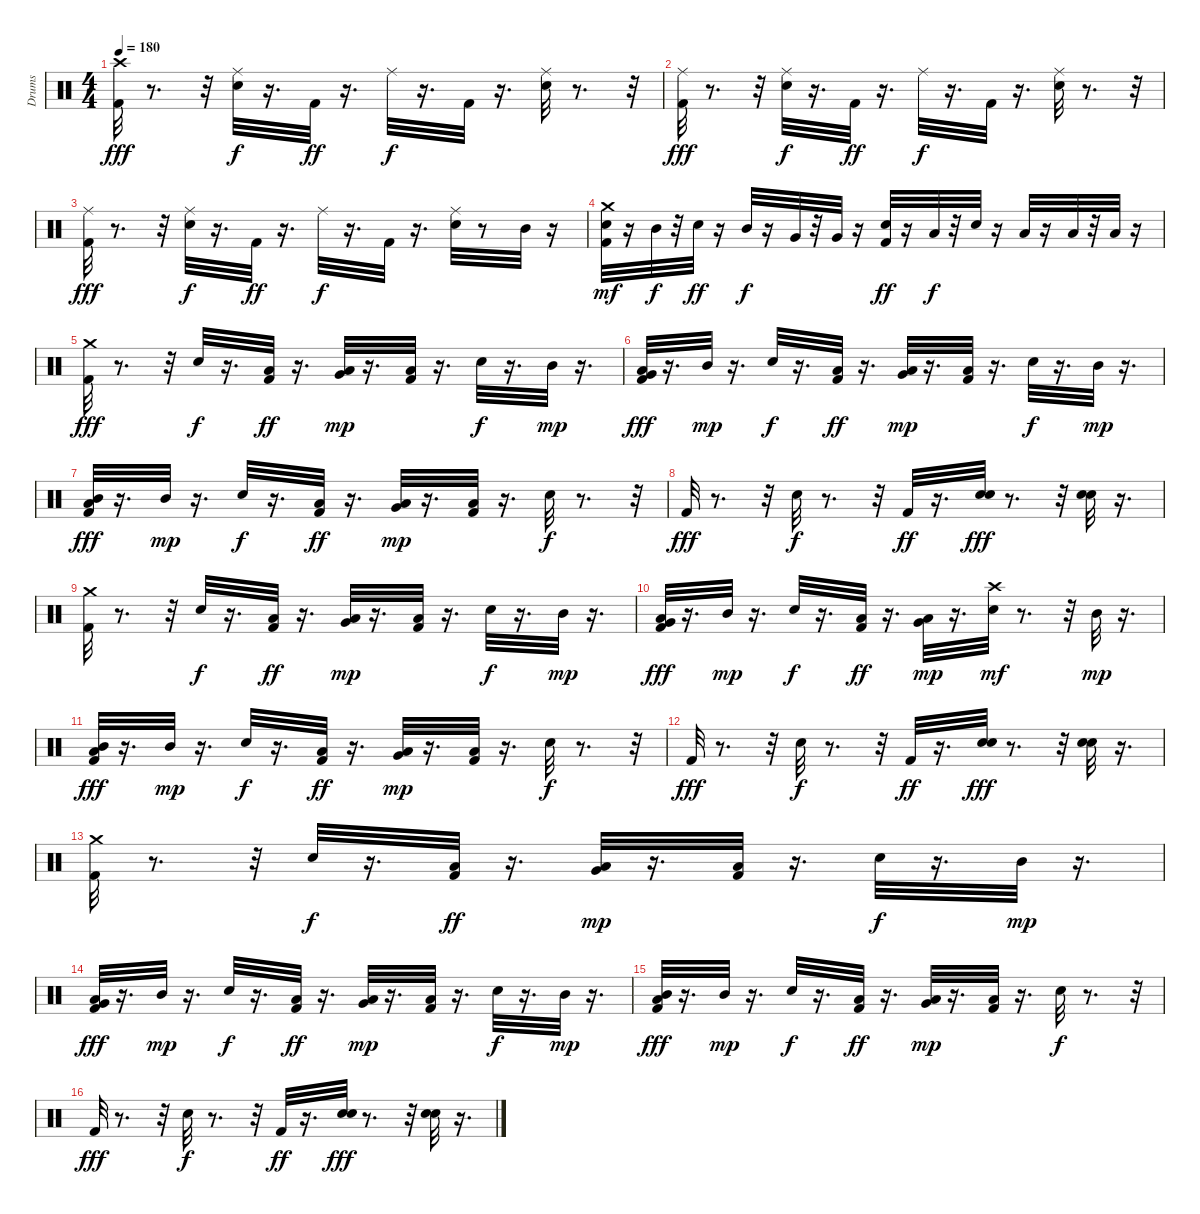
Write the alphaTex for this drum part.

\track ("Drums" "Drums") {instrument percussion}
\staff {score}
\articulation defaults
\ts (4 4)
\tempo 180
\clef neutral
\ks c
("Kick (hit) 2" "Crash high (hit)").32{dy fff} r.8{d} r.32 ("Ride (middle)" "Snare (hit) 2").32{dy f} r.16{d} "Kick (hit) 2".32{dy ff} r.16{d} "Ride (middle)".32{dy f} r.16{d} "Kick (hit) 2".32 r.16{d} ("Ride (middle)" "Snare (hit) 2").32 r.8{d} r.32 |
("Ride (middle)" "Kick (hit) 2").32{dy fff} r.8{d} r.32 ("Ride (middle)" "Snare (hit) 2").32{dy f} r.16{d} "Kick (hit) 2".32{dy ff} r.16{d} "Ride (middle)".32{dy f} r.16{d} "Kick (hit) 2".32 r.16{d} ("Ride (middle)" "Snare (hit) 2").32 r.8{d} r.32 |
("Ride (middle)" "Kick (hit) 2").32{dy fff} r.8{d} r.32 ("Ride (middle)" "Snare (hit) 2").32{dy f} r.16{d} "Kick (hit) 2".32{dy ff} r.16{d} "Ride (middle)".32{dy f} r.16{d} "Kick (hit) 2".32 r.16{d} ("Ride (middle)" "Snare (hit) 2").32 r.8 "Mid Tom (hit)".32 r.16 |
("Kick (hit) 2" "Snare (hit) 2" "Crash medium (hit)").32{dy mf} r.16 "Mid Tom (hit)".32{dy f} r.32 "Snare (hit) 2".32{dy ff} r.16 "Mid Tom (hit)".32{dy f} r.16 "Very Low Tom (hit)".32 r.32 "Very Low Tom (hit)".32 r.16 ("Kick (hit) 2" "Snare (hit) 2").32{dy ff} r.16 "Low Tom (hit)".32{dy f} r.32 "Snare (hit) 2".32 r.16 "Low Tom (hit)".32 r.16 "Low Floor Tom (hit)".32 r.32 "Low Floor Tom (hit)".32 r.16 |
("Kick (hit) 2" "Crash medium (hit)").32{dy fff} r.8{d} r.32 "Snare (hit) 2".32{dy f} r.16{d} ("Low Tom (hit)" "Kick (hit) 2").32{dy ff} r.16{d} ("Very Low Tom (hit)" "Low Floor Tom (hit)").32{dy mp} r.16{d} ("Low Tom (hit)" "Kick (hit) 2").32 r.16{d} "Snare (hit) 2".32{dy f} r.16{d} "Mid Tom (hit)".32{dy mp} r.16{d} |
("Low Tom (hit)" "Very Low Tom (hit)" "Kick (hit) 2").32{dy fff} r.16{d} "Mid Tom (hit)".32{dy mp} r.16{d} "Snare (hit) 2".32{dy f} r.16{d} ("Low Tom (hit)" "Kick (hit) 2").32{dy ff} r.16{d} ("Very Low Tom (hit)" "Low Floor Tom (hit)").32{dy mp} r.16{d} ("Low Tom (hit)" "Kick (hit) 2").32 r.16{d} "Snare (hit) 2".32{dy f} r.16{d} "Mid Tom (hit)".32{dy mp} r.16{d} |
("Mid Tom (hit)" "Low Tom (hit)" "Kick (hit) 2").32{dy fff} r.16{d} "Mid Tom (hit)".32{dy mp} r.16{d} "Snare (hit) 2".32{dy f} r.16{d} ("Low Tom (hit)" "Kick (hit) 2").32{dy ff} r.16{d} ("Very Low Tom (hit)" "Low Floor Tom (hit)").32{dy mp} r.16{d} ("Low Tom (hit)" "Kick (hit) 2").32 r.16{d} "Snare (hit) 2".32{dy f} r.8{d} r.32 |
"Kick (hit) 2".32{dy fff} r.8{d} r.32 "Snare (hit) 2".32{dy f} r.8{d} r.32 "Kick (hit) 2".32{dy ff} r.16{d} ("Electric Snare (hit)" "Snare (hit) 2").32{dy fff} r.8{d} r.32 ("Electric Snare (hit)" "Snare (hit) 2").32 r.16{d} |
("Kick (hit) 2" "Crash medium (hit)").32 r.8{d} r.32 "Snare (hit) 2".32{dy f} r.16{d} ("Low Tom (hit)" "Kick (hit) 2").32{dy ff} r.16{d} ("Very Low Tom (hit)" "Low Floor Tom (hit)").32{dy mp} r.16{d} ("Low Tom (hit)" "Kick (hit) 2").32 r.16{d} "Snare (hit) 2".32{dy f} r.16{d} "Mid Tom (hit)".32{dy mp} r.16{d} |
("Low Tom (hit)" "Very Low Tom (hit)" "Kick (hit) 2").32{dy fff} r.16{d} "Mid Tom (hit)".32{dy mp} r.16{d} "Snare (hit) 2".32{dy f} r.16{d} ("Low Tom (hit)" "Kick (hit) 2").32{dy ff} r.16{d} ("Very Low Tom (hit)" "Low Floor Tom (hit)").32{dy mp} r.16{d} ("Crash high (hit)" "Snare (hit) 2").32{dy mf} r.8{d} r.32 "Mid Tom (hit)".32{dy mp} r.16{d} |
("Mid Tom (hit)" "Low Tom (hit)" "Kick (hit) 2").32{dy fff} r.16{d} "Mid Tom (hit)".32{dy mp} r.16{d} "Snare (hit) 2".32{dy f} r.16{d} ("Low Tom (hit)" "Kick (hit) 2").32{dy ff} r.16{d} ("Very Low Tom (hit)" "Low Floor Tom (hit)").32{dy mp} r.16{d} ("Low Tom (hit)" "Kick (hit) 2").32 r.16{d} "Snare (hit) 2".32{dy f} r.8{d} r.32 |
"Kick (hit) 2".32{dy fff} r.8{d} r.32 "Snare (hit) 2".32{dy f} r.8{d} r.32 "Kick (hit) 2".32{dy ff} r.16{d} ("Electric Snare (hit)" "Snare (hit) 2").32{dy fff} r.8{d} r.32 ("Electric Snare (hit)" "Snare (hit) 2").32 r.16{d} |
("Kick (hit) 2" "Crash medium (hit)").32 r.8{d} r.32 "Snare (hit) 2".32{dy f} r.16{d} ("Low Tom (hit)" "Kick (hit) 2").32{dy ff} r.16{d} ("Very Low Tom (hit)" "Low Floor Tom (hit)").32{dy mp} r.16{d} ("Low Tom (hit)" "Kick (hit) 2").32 r.16{d} "Snare (hit) 2".32{dy f} r.16{d} "Mid Tom (hit)".32{dy mp} r.16{d} |
("Low Tom (hit)" "Very Low Tom (hit)" "Kick (hit) 2").32{dy fff} r.16{d} "Mid Tom (hit)".32{dy mp} r.16{d} "Snare (hit) 2".32{dy f} r.16{d} ("Low Tom (hit)" "Kick (hit) 2").32{dy ff} r.16{d} ("Very Low Tom (hit)" "Low Floor Tom (hit)").32{dy mp} r.16{d} ("Low Tom (hit)" "Kick (hit) 2").32 r.16{d} "Snare (hit) 2".32{dy f} r.16{d} "Mid Tom (hit)".32{dy mp} r.16{d} |
("Mid Tom (hit)" "Low Tom (hit)" "Kick (hit) 2").32{dy fff} r.16{d} "Mid Tom (hit)".32{dy mp} r.16{d} "Snare (hit) 2".32{dy f} r.16{d} ("Low Tom (hit)" "Kick (hit) 2").32{dy ff} r.16{d} ("Very Low Tom (hit)" "Low Floor Tom (hit)").32{dy mp} r.16{d} ("Low Tom (hit)" "Kick (hit) 2").32 r.16{d} "Snare (hit) 2".32{dy f} r.8{d} r.32 |
"Kick (hit) 2".32{dy fff} r.8{d} r.32 "Snare (hit) 2".32{dy f} r.8{d} r.32 "Kick (hit) 2".32{dy ff} r.16{d} ("Electric Snare (hit)" "Snare (hit) 2").32{dy fff} r.8{d} r.32 ("Electric Snare (hit)" "Snare (hit) 2").32 r.16{d}
